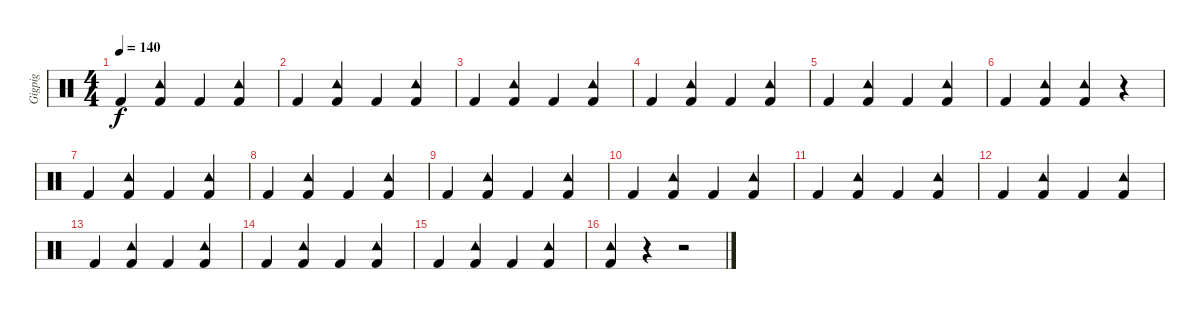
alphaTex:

\track ("Gigpig" "Gigpig") {instrument percussion}
\staff {score}
\articulation defaults
\ts (4 4)
\tempo 140
\clef neutral
\ks c "Kick (hit) 2".4{dy f}
("Tambourine (hit)" "Kick (hit) 2").4 "Kick (hit) 2".4 ("Tambourine (hit)" "Kick (hit) 2").4 |
"Kick (hit) 2".4 ("Tambourine (hit)" "Kick (hit) 2").4 "Kick (hit) 2".4 ("Tambourine (hit)" "Kick (hit) 2").4 |
"Kick (hit) 2".4 ("Tambourine (hit)" "Kick (hit) 2").4 "Kick (hit) 2".4 ("Tambourine (hit)" "Kick (hit) 2").4 |
"Kick (hit) 2".4 ("Tambourine (hit)" "Kick (hit) 2").4 "Kick (hit) 2".4 ("Tambourine (hit)" "Kick (hit) 2").4 |
"Kick (hit) 2".4 ("Tambourine (hit)" "Kick (hit) 2").4 "Kick (hit) 2".4 ("Tambourine (hit)" "Kick (hit) 2").4 |
"Kick (hit) 2".4 ("Tambourine (hit)" "Kick (hit) 2").4 ("Tambourine (hit)" "Kick (hit) 2").4 r.4 |
"Kick (hit) 2".4 ("Tambourine (hit)" "Kick (hit) 2").4 "Kick (hit) 2".4 ("Tambourine (hit)" "Kick (hit) 2").4 |
"Kick (hit) 2".4 ("Tambourine (hit)" "Kick (hit) 2").4 "Kick (hit) 2".4 ("Tambourine (hit)" "Kick (hit) 2").4 |
"Kick (hit) 2".4 ("Tambourine (hit)" "Kick (hit) 2").4 "Kick (hit) 2".4 ("Tambourine (hit)" "Kick (hit) 2").4 |
"Kick (hit) 2".4 ("Tambourine (hit)" "Kick (hit) 2").4 "Kick (hit) 2".4 ("Tambourine (hit)" "Kick (hit) 2").4 |
"Kick (hit) 2".4 ("Tambourine (hit)" "Kick (hit) 2").4 "Kick (hit) 2".4 ("Tambourine (hit)" "Kick (hit) 2").4 |
"Kick (hit) 2".4 ("Tambourine (hit)" "Kick (hit) 2").4 "Kick (hit) 2".4 ("Tambourine (hit)" "Kick (hit) 2").4 |
"Kick (hit) 2".4 ("Tambourine (hit)" "Kick (hit) 2").4 "Kick (hit) 2".4 ("Tambourine (hit)" "Kick (hit) 2").4 |
"Kick (hit) 2".4 ("Tambourine (hit)" "Kick (hit) 2").4 "Kick (hit) 2".4 ("Tambourine (hit)" "Kick (hit) 2").4 |
"Kick (hit) 2".4 ("Tambourine (hit)" "Kick (hit) 2").4 "Kick (hit) 2".4 ("Tambourine (hit)" "Kick (hit) 2").4 |
("Tambourine (hit)" "Kick (hit) 2").4 r.4 r.2
